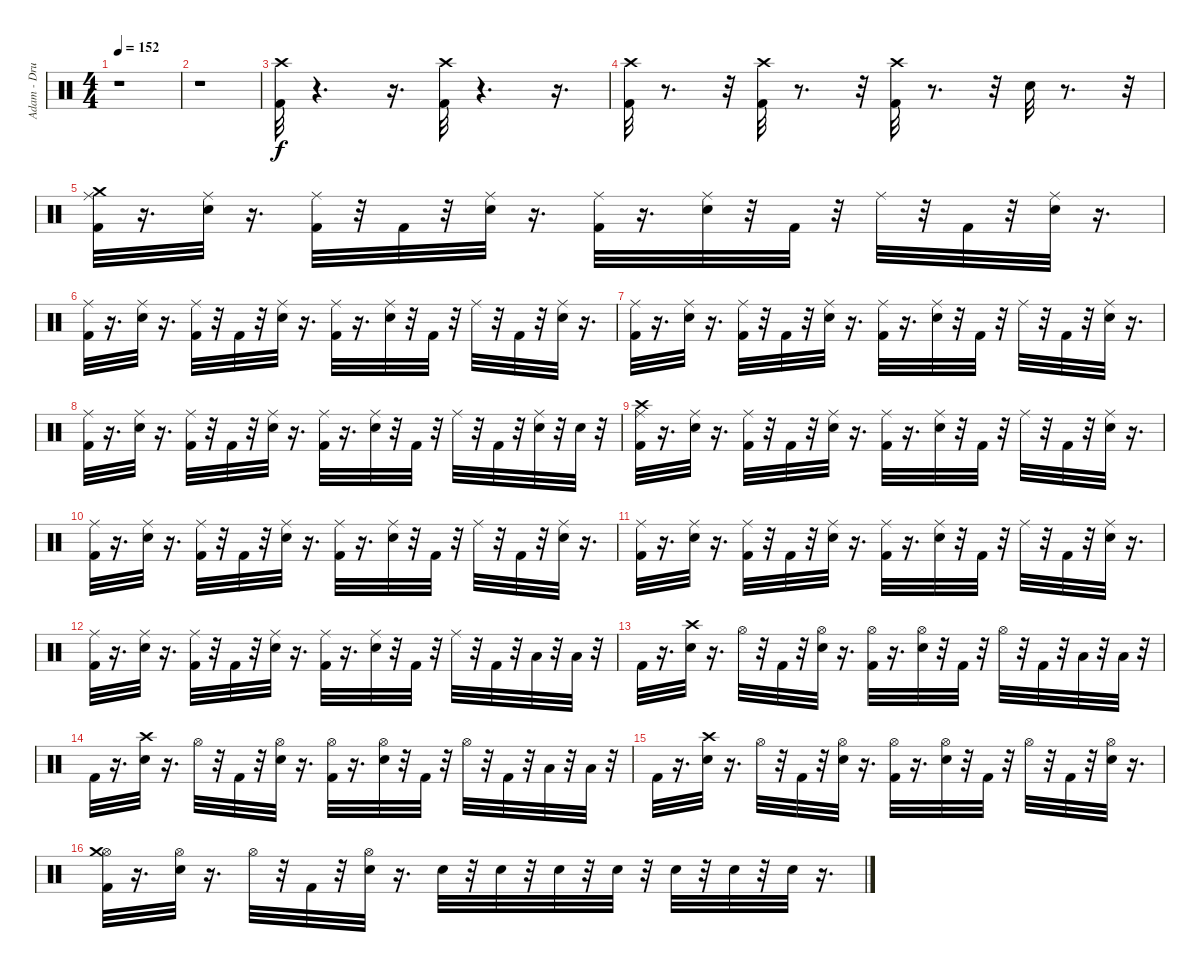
\track ("Adam - Drums" "Adam - Dru") {instrument percussion}
\staff {score}
\articulation defaults
\ts (4 4)
\tempo 152
\clef neutral
\ks c
r.1{dy f} |
r.1 |
("Crash high (hit)" "Kick (hit) 2").32 r.4{d} r.16{d} ("Kick (hit) 2" "Crash high (hit)").32 r.4{d} r.16{d} |
("Crash high (hit)" "Kick (hit) 2").32 r.8{d} r.32 ("Crash high (hit)" "Kick (hit) 2").32 r.8{d} r.32 ("Crash high (hit)" "Kick (hit) 2").32 r.8{d} r.32 "Snare (hit) 2".32 r.8{d} r.32 |
("Ride (middle)" "Crash medium (hit)" "Kick (hit) 2").32 r.16{d} ("Ride (middle)" "Snare (hit) 2").32 r.16{d} ("Ride (middle)" "Kick (hit) 2").32 r.32 "Kick (hit) 2".32 r.32 ("Ride (middle)" "Snare (hit) 2").32 r.16{d} ("Ride (middle)" "Kick (hit) 2").32 r.16{d} ("Ride (middle)" "Snare (hit) 2").32 r.32 "Kick (hit) 2".32 r.32 "Ride (middle)".32 r.32 "Kick (hit) 2".32 r.32 ("Ride (middle)" "Snare (hit) 2").32 r.16{d} |
("Ride (middle)" "Kick (hit) 2").32 r.16{d} ("Ride (middle)" "Snare (hit) 2").32 r.16{d} ("Ride (middle)" "Kick (hit) 2").32 r.32 "Kick (hit) 2".32 r.32 ("Ride (middle)" "Snare (hit) 2").32 r.16{d} ("Ride (middle)" "Kick (hit) 2").32 r.16{d} ("Ride (middle)" "Snare (hit) 2").32 r.32 "Kick (hit) 2".32 r.32 "Ride (middle)".32 r.32 "Kick (hit) 2".32 r.32 ("Ride (middle)" "Snare (hit) 2").32 r.16{d} |
("Ride (middle)" "Kick (hit) 2").32 r.16{d} ("Ride (middle)" "Snare (hit) 2").32 r.16{d} ("Ride (middle)" "Kick (hit) 2").32 r.32 "Kick (hit) 2".32 r.32 ("Ride (middle)" "Snare (hit) 2").32 r.16{d} ("Ride (middle)" "Kick (hit) 2").32 r.16{d} ("Ride (middle)" "Snare (hit) 2").32 r.32 "Kick (hit) 2".32 r.32 "Ride (middle)".32 r.32 "Kick (hit) 2".32 r.32 ("Ride (middle)" "Snare (hit) 2").32 r.16{d} |
("Ride (middle)" "Kick (hit) 2").32 r.16{d} ("Ride (middle)" "Snare (hit) 2").32 r.16{d} ("Ride (middle)" "Kick (hit) 2").32 r.32 "Kick (hit) 2".32 r.32 ("Ride (middle)" "Snare (hit) 2").32 r.16{d} ("Ride (middle)" "Kick (hit) 2").32 r.16{d} ("Ride (middle)" "Snare (hit) 2").32 r.32 "Kick (hit) 2".32 r.32 "Ride (middle)".32 r.32 "Kick (hit) 2".32 r.32 ("Ride (middle)" "Snare (hit) 2").32 r.32 "Snare (hit) 2".32 r.32 |
("Crash high (hit)" "Ride (middle)" "Kick (hit) 2").32 r.16{d} ("Ride (middle)" "Snare (hit) 2").32 r.16{d} ("Ride (middle)" "Kick (hit) 2").32 r.32 "Kick (hit) 2".32 r.32 ("Ride (middle)" "Snare (hit) 2").32 r.16{d} ("Ride (middle)" "Kick (hit) 2").32 r.16{d} ("Ride (middle)" "Snare (hit) 2").32 r.32 "Kick (hit) 2".32 r.32 "Ride (middle)".32 r.32 "Kick (hit) 2".32 r.32 ("Ride (middle)" "Snare (hit) 2").32 r.16{d} |
("Ride (middle)" "Kick (hit) 2").32 r.16{d} ("Ride (middle)" "Snare (hit) 2").32 r.16{d} ("Ride (middle)" "Kick (hit) 2").32 r.32 "Kick (hit) 2".32 r.32 ("Ride (middle)" "Snare (hit) 2").32 r.16{d} ("Ride (middle)" "Kick (hit) 2").32 r.16{d} ("Ride (middle)" "Snare (hit) 2").32 r.32 "Kick (hit) 2".32 r.32 "Ride (middle)".32 r.32 "Kick (hit) 2".32 r.32 ("Ride (middle)" "Snare (hit) 2").32 r.16{d} |
("Ride (middle)" "Kick (hit) 2").32 r.16{d} ("Ride (middle)" "Snare (hit) 2").32 r.16{d} ("Ride (middle)" "Kick (hit) 2").32 r.32 "Kick (hit) 2".32 r.32 ("Ride (middle)" "Snare (hit) 2").32 r.16{d} ("Ride (middle)" "Kick (hit) 2").32 r.16{d} ("Ride (middle)" "Snare (hit) 2").32 r.32 "Kick (hit) 2".32 r.32 "Ride (middle)".32 r.32 "Kick (hit) 2".32 r.32 ("Ride (middle)" "Snare (hit) 2").32 r.16{d} |
("Ride (middle)" "Kick (hit) 2").32 r.16{d} ("Ride (middle)" "Snare (hit) 2").32 r.16{d} ("Ride (middle)" "Kick (hit) 2").32 r.32 "Kick (hit) 2".32 r.32 ("Ride (middle)" "Snare (hit) 2").32 r.16{d} ("Ride (middle)" "Kick (hit) 2").32 r.16{d} ("Ride (middle)" "Snare (hit) 2").32 r.32 "Kick (hit) 2".32 r.32 "Ride (middle)".32 r.32 "Kick (hit) 2".32 r.32 "Low Floor Tom (hit)".32 r.32 "Low Floor Tom (hit)".32 r.32 |
"Kick (hit) 2".32 r.16{d} ("Snare (hit) 2" "Crash high (hit)").32 r.16{d} "Hi-Hat (open)".32 r.32 "Kick (hit) 2".32 r.32 ("Snare (hit) 2" "Hi-Hat (open)").32 r.16{d} ("Kick (hit) 2" "Hi-Hat (open)").32 r.16{d} ("Snare (hit) 2" "Hi-Hat (open)").32 r.32 "Kick (hit) 2".32 r.32 "Hi-Hat (open)".32 r.32 "Kick (hit) 2".32 r.32 "Low Floor Tom (hit)".32 r.32 "Low Floor Tom (hit)".32 r.32 |
"Kick (hit) 2".32 r.16{d} ("Snare (hit) 2" "Crash high (hit)").32 r.16{d} "Hi-Hat (open)".32 r.32 "Kick (hit) 2".32 r.32 ("Snare (hit) 2" "Hi-Hat (open)").32 r.16{d} ("Kick (hit) 2" "Hi-Hat (open)").32 r.16{d} ("Snare (hit) 2" "Hi-Hat (open)").32 r.32 "Kick (hit) 2".32 r.32 "Hi-Hat (open)".32 r.32 "Kick (hit) 2".32 r.32 "Low Floor Tom (hit)".32 r.32 "Low Floor Tom (hit)".32 r.32 |
"Kick (hit) 2".32 r.16{d} ("Snare (hit) 2" "Crash high (hit)").32 r.16{d} "Hi-Hat (open)".32 r.32 "Kick (hit) 2".32 r.32 ("Snare (hit) 2" "Hi-Hat (open)").32 r.16{d} ("Kick (hit) 2" "Hi-Hat (open)").32 r.16{d} ("Snare (hit) 2" "Hi-Hat (open)").32 r.32 "Kick (hit) 2".32 r.32 "Hi-Hat (open)".32 r.32 "Kick (hit) 2".32 r.32 ("Snare (hit) 2" "Hi-Hat (open)").32 r.16{d} |
("Kick (hit) 2" "Hi-Hat (open)" "Crash medium (hit)").32 r.16{d} ("Snare (hit) 2" "Hi-Hat (open)").32 r.16{d} "Hi-Hat (open)".32 r.32 "Kick (hit) 2".32 r.32 ("Hi-Hat (open)" "Snare (hit) 2").32 r.16{d} "Snare (hit) 2".32 r.32 "Snare (hit) 2".32 r.32 "Snare (hit) 2".32 r.32 "Snare (hit) 2".32 r.32 "Snare (hit) 2".32 r.32 "Snare (hit) 2".32 r.32 "Snare (hit) 2".32 r.16{d}
